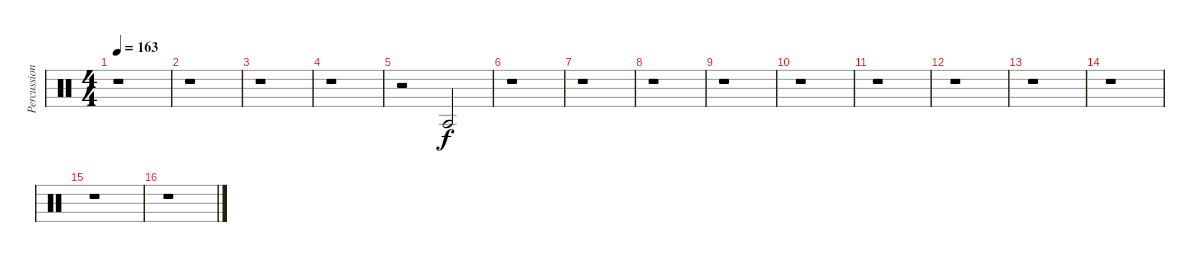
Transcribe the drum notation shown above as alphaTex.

\track ("Percussion" "Percussion") {instrument percussion}
\staff {score}
\articulation defaults
\ts (4 4)
\tempo 163
\clef neutral
\ks c
r.1{dy f} |
r.1 |
r.1 |
r.1 |
r.2 "Agogo tow (hit)".2 |
r.1 |
r.1 |
r.1 |
r.1 |
r.1 |
r.1 |
r.1 |
r.1 |
r.1 |
r.1 |
r.1
